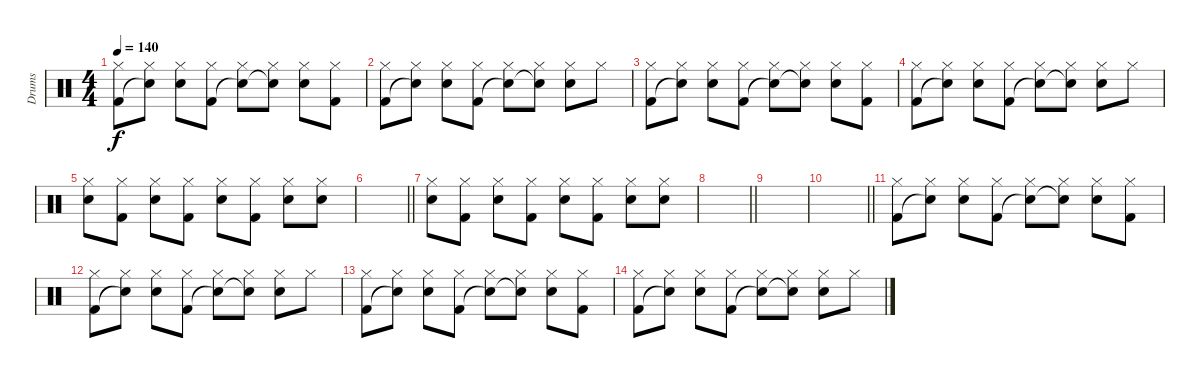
\track ("Drums" "Drums") {instrument percussion}
\staff {score}
\articulation defaults
\ts (4 4)
\tempo 140
\clef neutral
\ks c
("Hi-Hat (closed)" "Kick (hit) 2").8{dy f} ("Hi-Hat (closed)" "Snare (hit)"{t}).8 ("Hi-Hat (closed)" "Snare (hit) 2").8 ("Hi-Hat (closed)" "Kick (hit) 2").8 ("Hi-Hat (closed)" "Snare (hit)"{t}).8 ("Hi-Hat (closed)" "Snare (hit) 2"{t}).8 ("Hi-Hat (closed)" "Snare (hit) 2").8 ("Hi-Hat (closed)" "Kick (hit) 2").8 |
("Hi-Hat (closed)" "Kick (hit) 2").8 ("Hi-Hat (closed)" "Snare (hit)"{t}).8 ("Hi-Hat (closed)" "Snare (hit) 2").8 ("Hi-Hat (closed)" "Kick (hit) 2").8 ("Hi-Hat (closed)" "Snare (hit)"{t}).8 ("Hi-Hat (closed)" "Snare (hit) 2"{t}).8 ("Hi-Hat (closed)" "Snare (hit) 2").8 "Hi-Hat (closed)".8 |
("Hi-Hat (closed)" "Kick (hit) 2").8 ("Hi-Hat (closed)" "Snare (hit)"{t}).8 ("Hi-Hat (closed)" "Snare (hit) 2").8 ("Hi-Hat (closed)" "Kick (hit) 2").8 ("Hi-Hat (closed)" "Snare (hit)"{t}).8 ("Hi-Hat (closed)" "Snare (hit) 2"{t}).8 ("Hi-Hat (closed)" "Snare (hit) 2").8 ("Hi-Hat (closed)" "Kick (hit) 2").8 |
("Hi-Hat (closed)" "Kick (hit) 2").8 ("Hi-Hat (closed)" "Snare (hit)"{t}).8 ("Hi-Hat (closed)" "Snare (hit) 2").8 ("Hi-Hat (closed)" "Kick (hit) 2").8 ("Hi-Hat (closed)" "Snare (hit)"{t}).8 ("Hi-Hat (closed)" "Snare (hit) 2"{t}).8 ("Hi-Hat (closed)" "Snare (hit) 2").8 "Hi-Hat (closed)".8 |
("Hi-Hat (closed)" "Snare (hit) 2").8 ("Hi-Hat (closed)" "Kick (hit) 2").8 ("Hi-Hat (closed)" "Snare (hit) 2").8 ("Hi-Hat (closed)" "Kick (hit) 2").8 ("Hi-Hat (closed)" "Snare (hit) 2").8 ("Hi-Hat (closed)" "Kick (hit) 2").8 ("Hi-Hat (closed)" "Snare (hit) 2").8 ("Hi-Hat (closed)" "Snare (hit) 2").8 |
\barLineRight lightlight
|
("Hi-Hat (closed)" "Snare (hit) 2").8 ("Hi-Hat (closed)" "Kick (hit) 2").8 ("Hi-Hat (closed)" "Snare (hit) 2").8 ("Hi-Hat (closed)" "Kick (hit) 2").8 ("Hi-Hat (closed)" "Snare (hit) 2").8 ("Hi-Hat (closed)" "Kick (hit) 2").8 ("Hi-Hat (closed)" "Snare (hit) 2").8 ("Hi-Hat (closed)" "Snare (hit) 2").8 |
\barLineRight lightlight
|
|
\barLineRight lightlight
|
("Hi-Hat (closed)" "Kick (hit) 2").8 ("Hi-Hat (closed)" "Snare (hit)"{t}).8 ("Hi-Hat (closed)" "Snare (hit) 2").8 ("Hi-Hat (closed)" "Kick (hit) 2").8 ("Hi-Hat (closed)" "Snare (hit)"{t}).8 ("Hi-Hat (closed)" "Snare (hit) 2"{t}).8 ("Hi-Hat (closed)" "Snare (hit) 2").8 ("Hi-Hat (closed)" "Kick (hit) 2").8 |
("Hi-Hat (closed)" "Kick (hit) 2").8 ("Hi-Hat (closed)" "Snare (hit)"{t}).8 ("Hi-Hat (closed)" "Snare (hit) 2").8 ("Hi-Hat (closed)" "Kick (hit) 2").8 ("Hi-Hat (closed)" "Snare (hit)"{t}).8 ("Hi-Hat (closed)" "Snare (hit) 2"{t}).8 ("Hi-Hat (closed)" "Snare (hit) 2").8 "Hi-Hat (closed)".8 |
("Hi-Hat (closed)" "Kick (hit) 2").8 ("Hi-Hat (closed)" "Snare (hit)"{t}).8 ("Hi-Hat (closed)" "Snare (hit) 2").8 ("Hi-Hat (closed)" "Kick (hit) 2").8 ("Hi-Hat (closed)" "Snare (hit)"{t}).8 ("Hi-Hat (closed)" "Snare (hit) 2"{t}).8 ("Hi-Hat (closed)" "Snare (hit) 2").8 ("Hi-Hat (closed)" "Kick (hit) 2").8 |
("Hi-Hat (closed)" "Kick (hit) 2").8 ("Hi-Hat (closed)" "Snare (hit)"{t}).8 ("Hi-Hat (closed)" "Snare (hit) 2").8 ("Hi-Hat (closed)" "Kick (hit) 2").8 ("Hi-Hat (closed)" "Snare (hit)"{t}).8 ("Hi-Hat (closed)" "Snare (hit) 2"{t}).8 ("Hi-Hat (closed)" "Snare (hit) 2").8 "Hi-Hat (closed)".8
